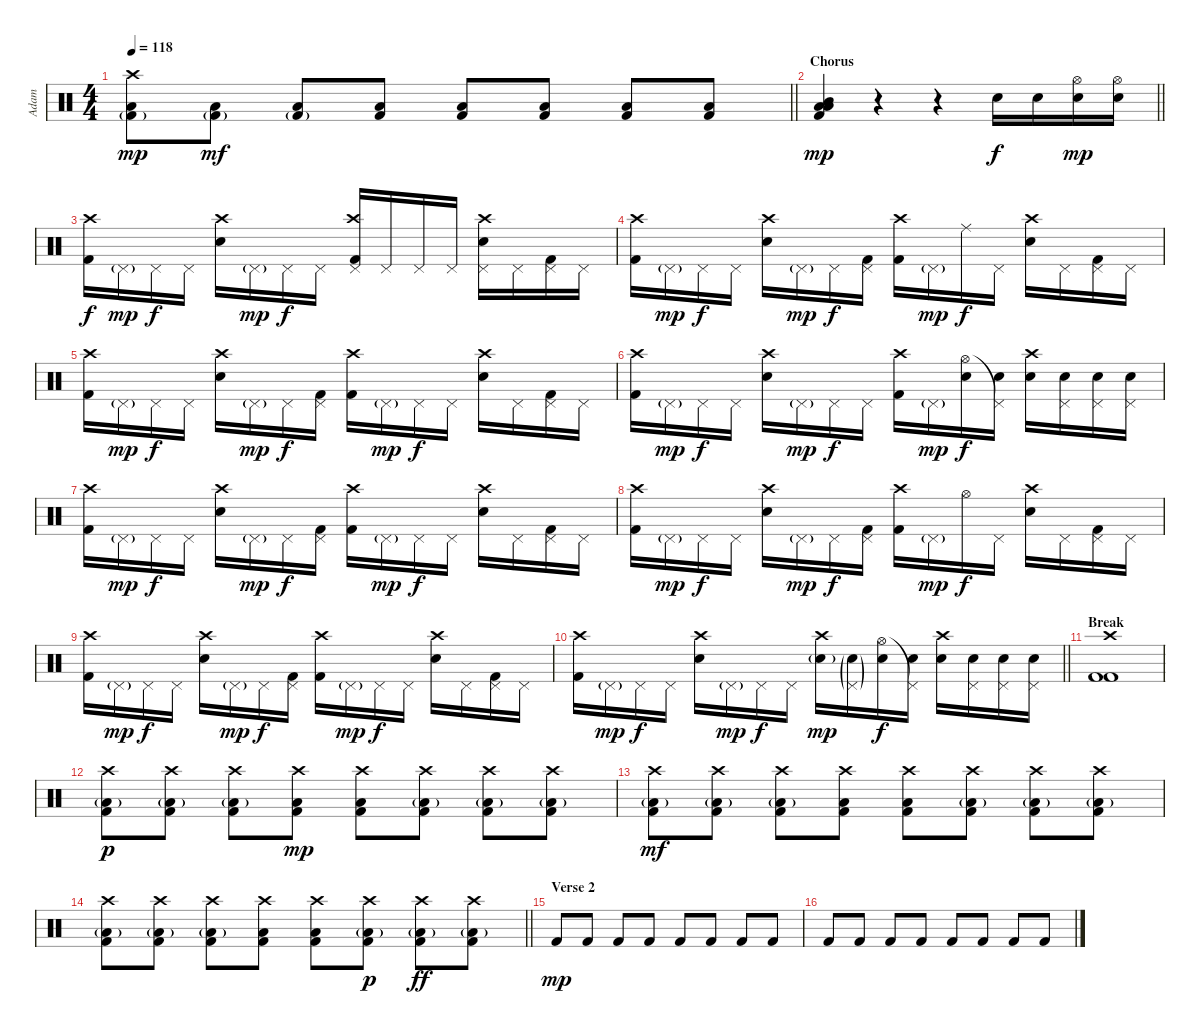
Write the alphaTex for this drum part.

\track ("Adam" "Adam") {instrument percussion}
\staff {score}
\articulation defaults
\ts (4 4)
\tempo 118
\clef neutral
\barLineRight lightlight
\ks c
("Kick (hit) 2"{g} "Low Floor Tom (hit)" "Crash high (hit)").8{bd 60 dy mp} ("Kick (hit) 2"{g} "Low Floor Tom (hit)").8{bd 60 dy mf} ("Kick (hit) 2"{g} "Low Floor Tom (hit)").8{bd 60} ("Kick (hit) 2" "Low Floor Tom (hit)").8{bd 60} ("Kick (hit) 2" "Low Floor Tom (hit)").8{bd 60} ("Kick (hit) 2" "Low Floor Tom (hit)").8{bd 60} ("Kick (hit) 2" "Low Floor Tom (hit)").8{bd 60} ("Kick (hit) 2" "Low Floor Tom (hit)").8{bd 60} |
\section ("" "Chorus")
\barLineRight lightlight
("Kick (hit) 2" "Low Floor Tom (hit)" "Low Tom (hit)" "Mid Tom (hit)").4{bd 60 dy mp} r.4 r.4 "Snare (hit) 2".16{dy f} "Snare (hit) 2".16 ("Hi-Hat (open)" "Snare (hit) 2").16{dy mp} ("Hi-Hat (open)" "Snare (hit) 2").16 |
("Kick (hit) 2" "Crash high (hit)").16{dy f} "Pedal Hi-Hat (hit)"{g}.16{dy mp} "Pedal Hi-Hat (hit)".16{dy f} "Pedal Hi-Hat (hit)".16 ("Snare (hit) 2" "Crash high (hit)").16 "Pedal Hi-Hat (hit)"{g}.16{dy mp} "Pedal Hi-Hat (hit)".16{dy f} "Pedal Hi-Hat (hit)".16 ("Kick (hit) 2" "Pedal Hi-Hat (hit)" "Crash high (hit)").16 "Pedal Hi-Hat (hit)".16 "Pedal Hi-Hat (hit)".16 "Pedal Hi-Hat (hit)".16 ("Snare (hit) 2" "Pedal Hi-Hat (hit)" "Crash high (hit)").16 "Pedal Hi-Hat (hit)".16 ("Pedal Hi-Hat (hit)" "Kick (hit) 2").16 "Pedal Hi-Hat (hit)".16 |
("Kick (hit) 2" "Crash high (hit)").16 "Pedal Hi-Hat (hit)"{g}.16{dy mp} "Pedal Hi-Hat (hit)".16{dy f} "Pedal Hi-Hat (hit)".16 ("Snare (hit) 2" "Crash high (hit)").16 "Pedal Hi-Hat (hit)"{g}.16{dy mp} "Pedal Hi-Hat (hit)".16{dy f} ("Pedal Hi-Hat (hit)" "Kick (hit) 2").16 ("Kick (hit) 2" "Crash high (hit)").16 "Pedal Hi-Hat (hit)"{g}.16{dy mp} "Ride (middle)".16{dy f} "Pedal Hi-Hat (hit)".16 ("Snare (hit) 2" "Crash high (hit)").16 "Pedal Hi-Hat (hit)".16 ("Pedal Hi-Hat (hit)" "Kick (hit) 2").16 "Pedal Hi-Hat (hit)".16 |
("Kick (hit) 2" "Crash high (hit)").16 "Pedal Hi-Hat (hit)"{g}.16{dy mp} "Pedal Hi-Hat (hit)".16{dy f} "Pedal Hi-Hat (hit)".16 ("Snare (hit) 2" "Crash high (hit)").16 "Pedal Hi-Hat (hit)"{g}.16{dy mp} "Pedal Hi-Hat (hit)".16{dy f} ("Pedal Hi-Hat (hit)" "Kick (hit) 2").16 ("Kick (hit) 2" "Crash high (hit)").16 "Pedal Hi-Hat (hit)"{g}.16{dy mp} "Pedal Hi-Hat (hit)".16{dy f} "Pedal Hi-Hat (hit)".16 ("Snare (hit) 2" "Crash high (hit)").16 "Pedal Hi-Hat (hit)".16 ("Pedal Hi-Hat (hit)" "Kick (hit) 2").16 "Pedal Hi-Hat (hit)".16 |
("Kick (hit) 2" "Crash high (hit)").16 "Pedal Hi-Hat (hit)"{g}.16{dy mp} "Pedal Hi-Hat (hit)".16{dy f} "Pedal Hi-Hat (hit)".16 ("Snare (hit) 2" "Crash high (hit)").16 "Pedal Hi-Hat (hit)"{g}.16{dy mp} "Pedal Hi-Hat (hit)".16{dy f} "Pedal Hi-Hat (hit)".16 ("Kick (hit) 2" "Crash high (hit)").16 "Pedal Hi-Hat (hit)"{g}.16{dy mp} ("Snare (hit) 2" "Hi-Hat (open)").16{dy f} ("Snare (hit) 2" "Pedal Hi-Hat (hit)"{t}).16 ("Snare (hit) 2" "Crash high (hit)").16 ("Snare (hit) 2" "Pedal Hi-Hat (hit)").16 ("Snare (hit) 2" "Pedal Hi-Hat (hit)").16 ("Snare (hit) 2" "Pedal Hi-Hat (hit)").16 |
("Kick (hit) 2" "Crash high (hit)").16 "Pedal Hi-Hat (hit)"{g}.16{dy mp} "Pedal Hi-Hat (hit)".16{dy f} "Pedal Hi-Hat (hit)".16 ("Snare (hit) 2" "Crash high (hit)").16 "Pedal Hi-Hat (hit)"{g}.16{dy mp} "Pedal Hi-Hat (hit)".16{dy f} ("Pedal Hi-Hat (hit)" "Kick (hit) 2").16 ("Kick (hit) 2" "Crash high (hit)").16 "Pedal Hi-Hat (hit)"{g}.16{dy mp} "Pedal Hi-Hat (hit)".16{dy f} "Pedal Hi-Hat (hit)".16 ("Snare (hit) 2" "Crash high (hit)").16 "Pedal Hi-Hat (hit)".16 ("Pedal Hi-Hat (hit)" "Kick (hit) 2").16 "Pedal Hi-Hat (hit)".16 |
("Kick (hit) 2" "Crash high (hit)").16 "Pedal Hi-Hat (hit)"{g}.16{dy mp} "Pedal Hi-Hat (hit)".16{dy f} "Pedal Hi-Hat (hit)".16 ("Snare (hit) 2" "Crash high (hit)").16 "Pedal Hi-Hat (hit)"{g}.16{dy mp} "Pedal Hi-Hat (hit)".16{dy f} ("Pedal Hi-Hat (hit)" "Kick (hit) 2").16 ("Kick (hit) 2" "Crash high (hit)").16 "Pedal Hi-Hat (hit)"{g}.16{dy mp} "Hi-Hat (open)".16{dy f} "Pedal Hi-Hat (hit)".16 ("Snare (hit) 2" "Crash high (hit)").16 "Pedal Hi-Hat (hit)".16 ("Pedal Hi-Hat (hit)" "Kick (hit) 2").16 "Pedal Hi-Hat (hit)".16 |
("Kick (hit) 2" "Crash high (hit)").16 "Pedal Hi-Hat (hit)"{g}.16{dy mp} "Pedal Hi-Hat (hit)".16{dy f} "Pedal Hi-Hat (hit)".16 ("Snare (hit) 2" "Crash high (hit)").16 "Pedal Hi-Hat (hit)"{g}.16{dy mp} "Pedal Hi-Hat (hit)".16{dy f} ("Pedal Hi-Hat (hit)" "Kick (hit) 2").16 ("Kick (hit) 2" "Crash high (hit)").16 "Pedal Hi-Hat (hit)"{g}.16{dy mp} "Pedal Hi-Hat (hit)".16{dy f} "Pedal Hi-Hat (hit)".16 ("Snare (hit) 2" "Crash high (hit)").16 "Pedal Hi-Hat (hit)".16 ("Pedal Hi-Hat (hit)" "Kick (hit) 2").16 "Pedal Hi-Hat (hit)".16 |
\barLineRight lightlight
("Kick (hit) 2" "Crash high (hit)").16 "Pedal Hi-Hat (hit)"{g}.16{dy mp} "Pedal Hi-Hat (hit)".16{dy f} "Pedal Hi-Hat (hit)".16 ("Snare (hit) 2" "Crash high (hit)").16 "Pedal Hi-Hat (hit)"{g}.16{dy mp} "Pedal Hi-Hat (hit)".16{dy f} "Pedal Hi-Hat (hit)".16 ("Snare (hit) 2"{g} "Crash high (hit)").16{dy mp} ("Snare (hit) 2"{g} "Pedal Hi-Hat (hit)"{g}).16 ("Snare (hit) 2" "Hi-Hat (open)").16{dy f} ("Snare (hit) 2" "Pedal Hi-Hat (hit)"{t}).16 ("Snare (hit) 2" "Crash high (hit)").16 ("Snare (hit) 2" "Pedal Hi-Hat (hit)").16 ("Snare (hit) 2" "Pedal Hi-Hat (hit)").16 ("Snare (hit) 2" "Pedal Hi-Hat (hit)").16 |
\section ("" "Break")
("Crash high (hit)" "Kick (hit) 2" "Kick (hit) 2").1 |
("Kick (hit) 2" "Low Floor Tom (hit)"{g} "Crash high (hit)").8{bd 60 dy p} ("Kick (hit) 2" "Low Floor Tom (hit)"{g} "Crash high (hit)").8{bd 60} ("Kick (hit) 2" "Low Floor Tom (hit)"{g} "Crash high (hit)").8{bd 60} ("Kick (hit) 2" "Low Floor Tom (hit)" "Crash high (hit)").8{bd 60 dy mp} ("Kick (hit) 2" "Low Floor Tom (hit)" "Crash high (hit)").8{bd 60} ("Kick (hit) 2" "Low Floor Tom (hit)"{g} "Crash high (hit)").8{bd 60} ("Kick (hit) 2" "Low Floor Tom (hit)"{g} "Crash high (hit)").8{bd 60} ("Kick (hit) 2" "Low Floor Tom (hit)"{g} "Crash high (hit)").8{bd 60} |
("Kick (hit) 2" "Low Floor Tom (hit)"{g} "Crash high (hit)").8{bd 60 dy mf} ("Kick (hit) 2" "Low Floor Tom (hit)"{g} "Crash high (hit)").8{bd 60} ("Kick (hit) 2" "Low Floor Tom (hit)"{g} "Crash high (hit)").8{bd 60} ("Kick (hit) 2" "Low Floor Tom (hit)" "Crash high (hit)").8{bd 60} ("Kick (hit) 2" "Low Floor Tom (hit)" "Crash high (hit)").8{bd 60} ("Kick (hit) 2" "Low Floor Tom (hit)"{g} "Crash high (hit)").8{bd 60} ("Kick (hit) 2" "Low Floor Tom (hit)"{g} "Crash high (hit)").8{bd 60} ("Kick (hit) 2" "Low Floor Tom (hit)"{g} "Crash high (hit)").8{bd 60} |
\barLineRight lightlight
("Kick (hit) 2" "Low Floor Tom (hit)"{g} "Crash high (hit)").8{bd 60} ("Kick (hit) 2" "Low Floor Tom (hit)"{g} "Crash high (hit)").8{bd 60} ("Kick (hit) 2" "Low Floor Tom (hit)"{g} "Crash high (hit)").8{bd 60} ("Kick (hit) 2" "Low Floor Tom (hit)" "Crash high (hit)").8{bd 60} ("Kick (hit) 2" "Low Floor Tom (hit)" "Crash high (hit)").8{bd 60} ("Kick (hit) 2" "Low Floor Tom (hit)"{g} "Crash high (hit)").8{bd 60 dy p} ("Kick (hit) 2" "Low Floor Tom (hit)"{g} "Crash high (hit)").8{bd 60 dy ff} ("Kick (hit) 2" "Low Floor Tom (hit)"{g} "Crash high (hit)").8{bd 60} |
\section ("" "Verse 2")
"Kick (hit) 2".8{dy mp} "Kick (hit) 2".8 "Kick (hit) 2".8 "Kick (hit) 2".8 "Kick (hit) 2".8 "Kick (hit) 2".8 "Kick (hit) 2".8 "Kick (hit) 2".8 |
"Kick (hit) 2".8 "Kick (hit) 2".8 "Kick (hit) 2".8 "Kick (hit) 2".8 "Kick (hit) 2".8 "Kick (hit) 2".8 "Kick (hit) 2".8 "Kick (hit) 2".8
